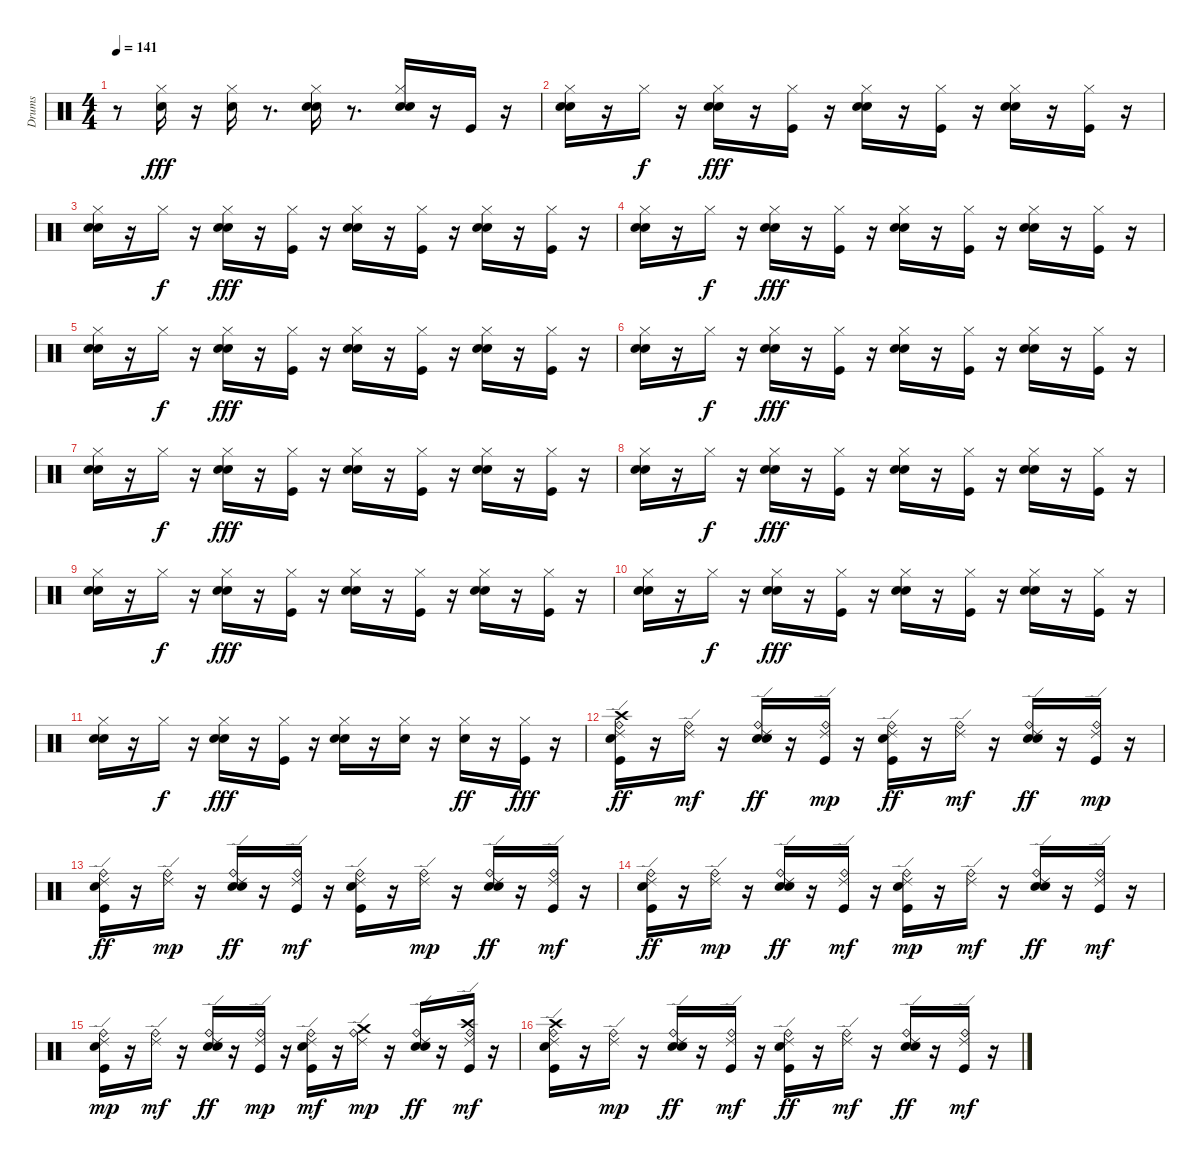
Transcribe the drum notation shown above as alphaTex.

\track ("Drums" "Drums") {instrument percussion}
\staff {score}
\articulation defaults
\ts (4 4)
\tempo 141
\clef neutral
\ks c
r.8{dy fff} ("Electric Snare (hit)" "Hi-Hat (closed)").16 r.16 ("Electric Snare (hit)" "Hi-Hat (closed)").16 r.8{d} ("Hand Clap (hit)" "Electric Snare (hit)" "Hi-Hat (closed)").16 r.8{d} ("Hand Clap (hit)" "Electric Snare (hit)" "Hi-Hat (closed)").16 r.16 "Kick (hit)".16 r.16 |
("Hand Clap (hit)" "Electric Snare (hit)" "Hi-Hat (closed)").16 r.16 "Hi-Hat (closed)".16{dy f} r.16 ("Hand Clap (hit)" "Electric Snare (hit)" "Hi-Hat (closed)").16{dy fff} r.16 ("Kick (hit)" "Hi-Hat (closed)").16 r.16 ("Hand Clap (hit)" "Electric Snare (hit)" "Hi-Hat (closed)").16 r.16 ("Kick (hit)" "Hi-Hat (closed)").16 r.16 ("Hand Clap (hit)" "Electric Snare (hit)" "Hi-Hat (closed)").16 r.16 ("Kick (hit)" "Hi-Hat (closed)").16 r.16 |
("Hand Clap (hit)" "Electric Snare (hit)" "Hi-Hat (closed)").16 r.16 "Hi-Hat (closed)".16{dy f} r.16 ("Hand Clap (hit)" "Electric Snare (hit)" "Hi-Hat (closed)").16{dy fff} r.16 ("Kick (hit)" "Hi-Hat (closed)").16 r.16 ("Hand Clap (hit)" "Electric Snare (hit)" "Hi-Hat (closed)").16 r.16 ("Kick (hit)" "Hi-Hat (closed)").16 r.16 ("Hand Clap (hit)" "Electric Snare (hit)" "Hi-Hat (closed)").16 r.16 ("Kick (hit)" "Hi-Hat (closed)").16 r.16 |
("Hand Clap (hit)" "Electric Snare (hit)" "Hi-Hat (closed)").16 r.16 "Hi-Hat (closed)".16{dy f} r.16 ("Hand Clap (hit)" "Electric Snare (hit)" "Hi-Hat (closed)").16{dy fff} r.16 ("Kick (hit)" "Hi-Hat (closed)").16 r.16 ("Hand Clap (hit)" "Electric Snare (hit)" "Hi-Hat (closed)").16 r.16 ("Kick (hit)" "Hi-Hat (closed)").16 r.16 ("Hand Clap (hit)" "Electric Snare (hit)" "Hi-Hat (closed)").16 r.16 ("Kick (hit)" "Hi-Hat (closed)").16 r.16 |
("Hand Clap (hit)" "Electric Snare (hit)" "Hi-Hat (closed)").16 r.16 "Hi-Hat (closed)".16{dy f} r.16 ("Hand Clap (hit)" "Electric Snare (hit)" "Hi-Hat (closed)").16{dy fff} r.16 ("Kick (hit)" "Hi-Hat (closed)").16 r.16 ("Hand Clap (hit)" "Electric Snare (hit)" "Hi-Hat (closed)").16 r.16 ("Kick (hit)" "Hi-Hat (closed)").16 r.16 ("Hand Clap (hit)" "Electric Snare (hit)" "Hi-Hat (closed)").16 r.16 ("Kick (hit)" "Hi-Hat (closed)").16 r.16 |
("Hand Clap (hit)" "Electric Snare (hit)" "Hi-Hat (closed)").16 r.16 "Hi-Hat (closed)".16{dy f} r.16 ("Hand Clap (hit)" "Electric Snare (hit)" "Hi-Hat (closed)").16{dy fff} r.16 ("Kick (hit)" "Hi-Hat (closed)").16 r.16 ("Hand Clap (hit)" "Electric Snare (hit)" "Hi-Hat (closed)").16 r.16 ("Kick (hit)" "Hi-Hat (closed)").16 r.16 ("Hand Clap (hit)" "Electric Snare (hit)" "Hi-Hat (closed)").16 r.16 ("Kick (hit)" "Hi-Hat (closed)").16 r.16 |
("Hand Clap (hit)" "Electric Snare (hit)" "Hi-Hat (closed)").16 r.16 "Hi-Hat (closed)".16{dy f} r.16 ("Hand Clap (hit)" "Electric Snare (hit)" "Hi-Hat (closed)").16{dy fff} r.16 ("Kick (hit)" "Hi-Hat (closed)").16 r.16 ("Hand Clap (hit)" "Electric Snare (hit)" "Hi-Hat (closed)").16 r.16 ("Kick (hit)" "Hi-Hat (closed)").16 r.16 ("Hand Clap (hit)" "Electric Snare (hit)" "Hi-Hat (closed)").16 r.16 ("Kick (hit)" "Hi-Hat (closed)").16 r.16 |
("Hand Clap (hit)" "Electric Snare (hit)" "Hi-Hat (closed)").16 r.16 "Hi-Hat (closed)".16{dy f} r.16 ("Hand Clap (hit)" "Electric Snare (hit)" "Hi-Hat (closed)").16{dy fff} r.16 ("Kick (hit)" "Hi-Hat (closed)").16 r.16 ("Hand Clap (hit)" "Electric Snare (hit)" "Hi-Hat (closed)").16 r.16 ("Kick (hit)" "Hi-Hat (closed)").16 r.16 ("Hand Clap (hit)" "Electric Snare (hit)" "Hi-Hat (closed)").16 r.16 ("Kick (hit)" "Hi-Hat (closed)").16 r.16 |
("Hand Clap (hit)" "Electric Snare (hit)" "Hi-Hat (closed)").16 r.16 "Hi-Hat (closed)".16{dy f} r.16 ("Hand Clap (hit)" "Electric Snare (hit)" "Hi-Hat (closed)").16{dy fff} r.16 ("Kick (hit)" "Hi-Hat (closed)").16 r.16 ("Hand Clap (hit)" "Electric Snare (hit)" "Hi-Hat (closed)").16 r.16 ("Kick (hit)" "Hi-Hat (closed)").16 r.16 ("Hand Clap (hit)" "Electric Snare (hit)" "Hi-Hat (closed)").16 r.16 ("Kick (hit)" "Hi-Hat (closed)").16 r.16 |
("Hand Clap (hit)" "Electric Snare (hit)" "Hi-Hat (closed)").16 r.16 "Hi-Hat (closed)".16{dy f} r.16 ("Hand Clap (hit)" "Electric Snare (hit)" "Hi-Hat (closed)").16{dy fff} r.16 ("Kick (hit)" "Hi-Hat (closed)").16 r.16 ("Hand Clap (hit)" "Electric Snare (hit)" "Hi-Hat (closed)").16 r.16 ("Kick (hit)" "Hi-Hat (closed)").16 r.16 ("Hand Clap (hit)" "Electric Snare (hit)" "Hi-Hat (closed)").16 r.16 ("Kick (hit)" "Hi-Hat (closed)").16 r.16 |
("Hand Clap (hit)" "Electric Snare (hit)" "Hi-Hat (closed)").16 r.16 "Hi-Hat (closed)".16{dy f} r.16 ("Hand Clap (hit)" "Electric Snare (hit)" "Hi-Hat (closed)").16{dy fff} r.16 ("Kick (hit)" "Hi-Hat (closed)").16 r.16 ("Hand Clap (hit)" "Electric Snare (hit)" "Hi-Hat (closed)").16 r.16 ("Electric Snare (hit)" "Hi-Hat (closed)").16 r.16 ("Hand Clap (hit)" "Hi-Hat (closed)").16{dy ff} r.16 ("Kick (hit)" "Hi-Hat (closed)").16{dy fff} r.16 |
("Kick (hit)" "Hand Clap (hit)" "Crash high (hit)" "Ride (bell)" "Ride (edge) 2").16{dy ff} r.16 ("Ride (bell)" "Ride (edge) 2").16{dy mf} r.16 ("Hand Clap (hit)" "Electric Snare (hit)" "Ride (bell)" "Ride (edge) 2").16{dy ff} r.16 ("Kick (hit)" "Ride (bell)" "Ride (edge) 2").16{dy mp} r.16 ("Kick (hit)" "Hand Clap (hit)" "Ride (bell)" "Ride (edge) 2").16{dy ff} r.16 ("Ride (bell)" "Ride (edge) 2").16{dy mf} r.16 ("Hand Clap (hit)" "Electric Snare (hit)" "Ride (bell)" "Ride (edge) 2").16{dy ff} r.16 ("Kick (hit)" "Ride (bell)" "Ride (edge) 2").16{dy mp} r.16 |
("Kick (hit)" "Hand Clap (hit)" "Ride (bell)" "Ride (edge) 2").16{dy ff} r.16 ("Ride (bell)" "Ride (edge) 2").16{dy mp} r.16 ("Hand Clap (hit)" "Electric Snare (hit)" "Ride (bell)" "Ride (edge) 2").16{dy ff} r.16 ("Kick (hit)" "Ride (bell)" "Ride (edge) 2").16{dy mf} r.16 ("Kick (hit)" "Hand Clap (hit)" "Ride (bell)" "Ride (edge) 2").16 r.16 ("Ride (bell)" "Ride (edge) 2").16{dy mp} r.16 ("Hand Clap (hit)" "Electric Snare (hit)" "Ride (bell)" "Ride (edge) 2").16{dy ff} r.16 ("Kick (hit)" "Ride (bell)" "Ride (edge) 2").16{dy mf} r.16 |
("Kick (hit)" "Hand Clap (hit)" "Ride (bell)" "Ride (edge) 2").16{dy ff} r.16 ("Ride (bell)" "Ride (edge) 2").16{dy mp} r.16 ("Hand Clap (hit)" "Electric Snare (hit)" "Ride (bell)" "Ride (edge) 2").16{dy ff} r.16 ("Kick (hit)" "Ride (bell)" "Ride (edge) 2").16{dy mf} r.16 ("Kick (hit)" "Hand Clap (hit)" "Ride (bell)" "Ride (edge) 2").16{dy mp} r.16 ("Ride (bell)" "Ride (edge) 2").16{dy mf} r.16 ("Hand Clap (hit)" "Electric Snare (hit)" "Ride (bell)" "Ride (edge) 2").16{dy ff} r.16 ("Kick (hit)" "Ride (bell)" "Ride (edge) 2").16{dy mf} r.16 |
("Kick (hit)" "Hand Clap (hit)" "Ride (bell)" "Ride (edge) 2").16{dy mp} r.16 ("Ride (bell)" "Ride (edge) 2").16{dy mf} r.16 ("Hand Clap (hit)" "Electric Snare (hit)" "Ride (bell)" "Ride (edge) 2").16{dy ff} r.16 ("Kick (hit)" "Ride (bell)" "Ride (edge) 2").16{dy mp} r.16 ("Kick (hit)" "Hand Clap (hit)" "Ride (bell)" "Ride (edge) 2").16{dy mf} r.16 ("Ride (bell)" "Crash medium (hit)" "Ride (edge) 2").16{dy mp} r.16 ("Hand Clap (hit)" "Electric Snare (hit)" "Ride (bell)" "Ride (edge) 2").16{dy ff} r.16 ("Kick (hit)" "Crash high (hit)" "Ride (bell)" "Ride (edge) 2").16{dy mf} r.16 |
("Kick (hit)" "Hand Clap (hit)" "Crash high (hit)" "Ride (bell)" "Ride (edge) 2").16 r.16 ("Ride (bell)" "Ride (edge) 2").16{dy mp} r.16 ("Hand Clap (hit)" "Electric Snare (hit)" "Ride (bell)" "Ride (edge) 2").16{dy ff} r.16 ("Kick (hit)" "Ride (bell)" "Ride (edge) 2").16{dy mf} r.16 ("Kick (hit)" "Hand Clap (hit)" "Ride (bell)" "Ride (edge) 2").16{dy ff} r.16 ("Ride (bell)" "Ride (edge) 2").16{dy mf} r.16 ("Hand Clap (hit)" "Electric Snare (hit)" "Ride (bell)" "Ride (edge) 2").16{dy ff} r.16 ("Kick (hit)" "Ride (bell)" "Ride (edge) 2").16{dy mf} r.16
